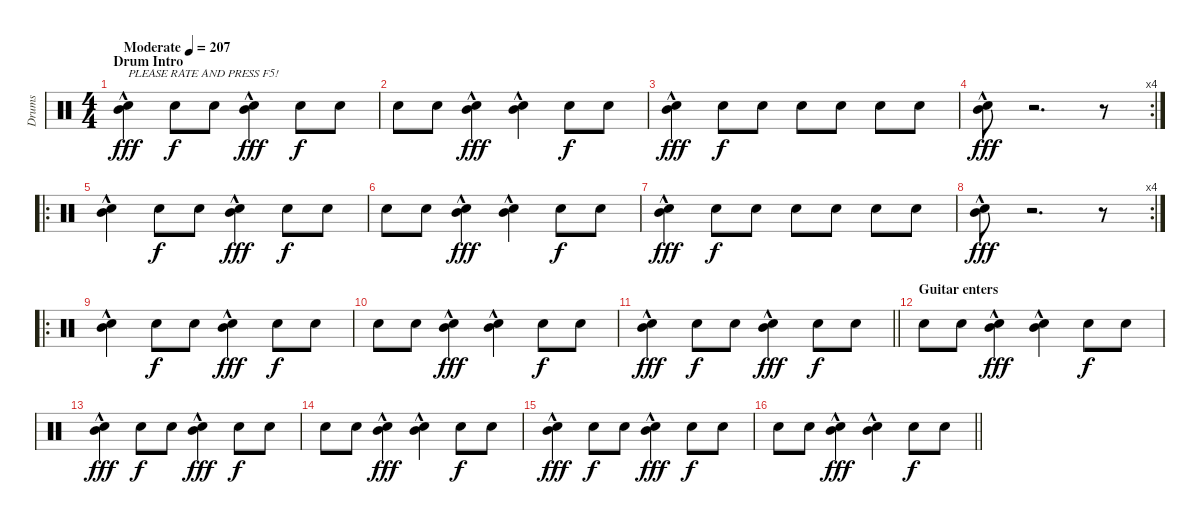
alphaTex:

\track ("Drums" "Drums") {instrument percussion}
\staff {score}
\articulation defaults
\ts (4 4)
\section ("" "Drum Intro")
\tempo (207 "Moderate")
\clef neutral
\ks c
("Snare (hit) 2"{hac} "Mid Tom (hit)"{hac}).4{txt "PLEASE RATE AND PRESS F5!" dy fff} "Snare (hit) 2".8{dy f} "Snare (hit) 2".8 ("Snare (hit) 2"{hac} "Mid Tom (hit)"{hac}).4{dy fff} "Snare (hit) 2".8{dy f} "Snare (hit) 2".8 |
"Snare (hit) 2".8 "Snare (hit) 2".8 ("Snare (hit) 2"{hac} "Mid Tom (hit)"{hac}).4{dy fff} ("Snare (hit) 2"{hac} "Mid Tom (hit)"{hac}).4 "Snare (hit) 2".8{dy f} "Snare (hit) 2".8 |
("Snare (hit) 2"{hac} "Mid Tom (hit)"{hac}).4{dy fff} "Snare (hit) 2".8{dy f} "Snare (hit) 2".8 "Snare (hit) 2".8 "Snare (hit) 2".8 "Snare (hit) 2".8 "Snare (hit) 2".8 |
\rc 4
("Snare (hit) 2"{hac} "Mid Tom (hit)"{hac}).8{dy fff} r.2{d} r.8 |
\ro
("Snare (hit) 2"{hac} "Mid Tom (hit)"{hac}).4 "Snare (hit) 2".8{dy f} "Snare (hit) 2".8 ("Snare (hit) 2"{hac} "Mid Tom (hit)"{hac}).4{dy fff} "Snare (hit) 2".8{dy f} "Snare (hit) 2".8 |
"Snare (hit) 2".8 "Snare (hit) 2".8 ("Snare (hit) 2"{hac} "Mid Tom (hit)"{hac}).4{dy fff} ("Snare (hit) 2"{hac} "Mid Tom (hit)"{hac}).4 "Snare (hit) 2".8{dy f} "Snare (hit) 2".8 |
("Snare (hit) 2"{hac} "Mid Tom (hit)"{hac}).4{dy fff} "Snare (hit) 2".8{dy f} "Snare (hit) 2".8 "Snare (hit) 2".8 "Snare (hit) 2".8 "Snare (hit) 2".8 "Snare (hit) 2".8 |
\rc 4
("Snare (hit) 2"{hac} "Mid Tom (hit)"{hac}).8{dy fff} r.2{d} r.8 |
\ro
("Snare (hit) 2"{hac} "Mid Tom (hit)"{hac}).4 "Snare (hit) 2".8{dy f} "Snare (hit) 2".8 ("Snare (hit) 2"{hac} "Mid Tom (hit)"{hac}).4{dy fff} "Snare (hit) 2".8{dy f} "Snare (hit) 2".8 |
"Snare (hit) 2".8 "Snare (hit) 2".8 ("Snare (hit) 2"{hac} "Mid Tom (hit)"{hac}).4{dy fff} ("Snare (hit) 2"{hac} "Mid Tom (hit)"{hac}).4 "Snare (hit) 2".8{dy f} "Snare (hit) 2".8 |
\barLineRight lightlight
("Snare (hit) 2"{hac} "Mid Tom (hit)"{hac}).4{dy fff} "Snare (hit) 2".8{dy f} "Snare (hit) 2".8 ("Snare (hit) 2"{hac} "Mid Tom (hit)"{hac}).4{dy fff} "Snare (hit) 2".8{dy f} "Snare (hit) 2".8 |
\section ("" "Guitar enters")
"Snare (hit) 2".8 "Snare (hit) 2".8 ("Snare (hit) 2"{hac} "Mid Tom (hit)"{hac}).4{dy fff} ("Snare (hit) 2"{hac} "Mid Tom (hit)"{hac}).4 "Snare (hit) 2".8{dy f} "Snare (hit) 2".8 |
("Snare (hit) 2"{hac} "Mid Tom (hit)"{hac}).4{dy fff} "Snare (hit) 2".8{dy f} "Snare (hit) 2".8 ("Snare (hit) 2"{hac} "Mid Tom (hit)"{hac}).4{dy fff} "Snare (hit) 2".8{dy f} "Snare (hit) 2".8 |
"Snare (hit) 2".8 "Snare (hit) 2".8 ("Snare (hit) 2"{hac} "Mid Tom (hit)"{hac}).4{dy fff} ("Snare (hit) 2"{hac} "Mid Tom (hit)"{hac}).4 "Snare (hit) 2".8{dy f} "Snare (hit) 2".8 |
("Snare (hit) 2"{hac} "Mid Tom (hit)"{hac}).4{dy fff} "Snare (hit) 2".8{dy f} "Snare (hit) 2".8 ("Snare (hit) 2"{hac} "Mid Tom (hit)"{hac}).4{dy fff} "Snare (hit) 2".8{dy f} "Snare (hit) 2".8 |
\barLineRight lightlight "Snare (hit) 2".8 "Snare (hit) 2".8
("Snare (hit) 2"{hac} "Mid Tom (hit)"{hac}).4{dy fff} ("Snare (hit) 2"{hac} "Mid Tom (hit)"{hac}).4 "Snare (hit) 2".8{dy f} "Snare (hit) 2".8
